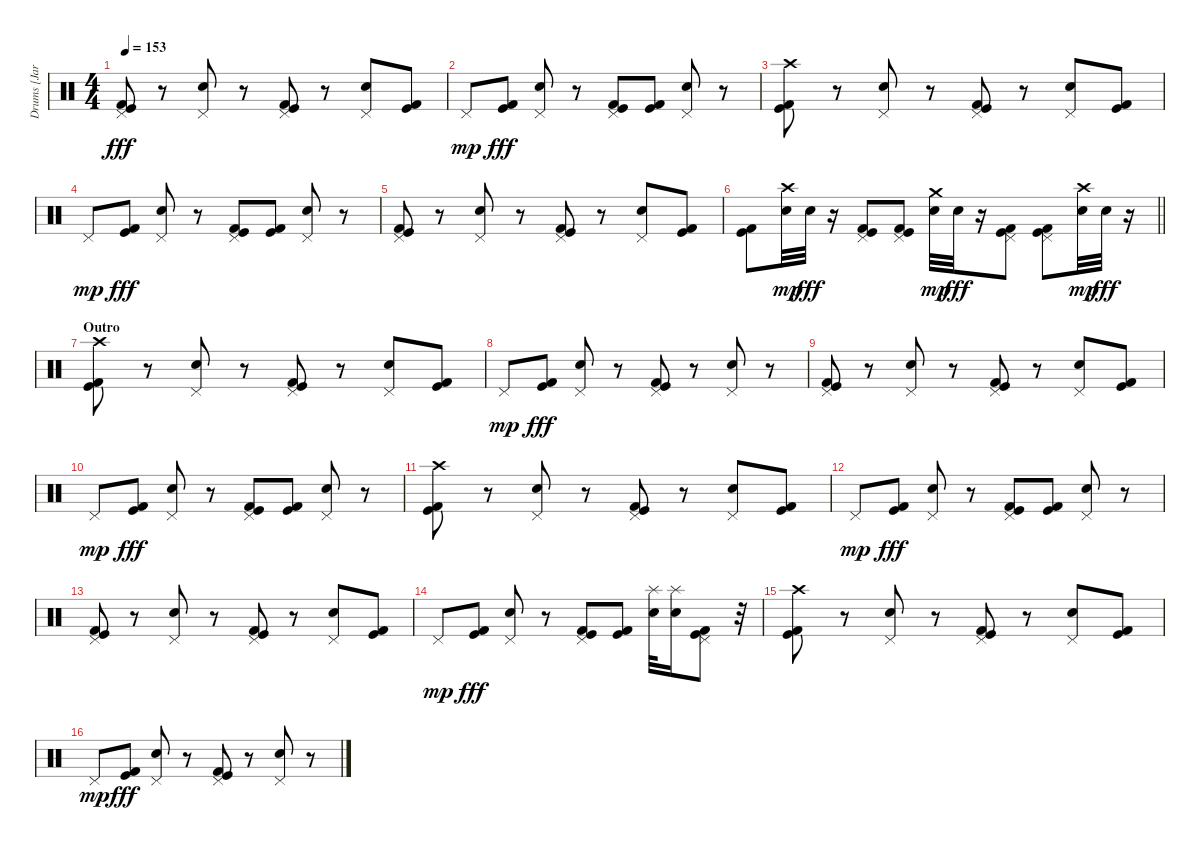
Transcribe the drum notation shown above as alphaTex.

\track ("Drums [Jari]" "Drums [Jar") {instrument percussion}
\staff {score}
\articulation defaults
\ts (4 4)
\tempo 153
\clef neutral
\ks c
("Kick (hit) 2" "Pedal Hi-Hat (hit)" "Kick (hit)").8{dy fff} r.8 ("Pedal Hi-Hat (hit)" "Electric Snare (hit)").8 r.8 ("Kick (hit) 2" "Pedal Hi-Hat (hit)" "Kick (hit)").8 r.8 ("Pedal Hi-Hat (hit)" "Electric Snare (hit)").8 ("Kick (hit) 2" "Kick (hit)").8 |
"Pedal Hi-Hat (hit)".8{dy mp} ("Kick (hit) 2" "Kick (hit)").8{dy fff} ("Pedal Hi-Hat (hit)" "Electric Snare (hit)").8 r.8 ("Kick (hit) 2" "Pedal Hi-Hat (hit)" "Kick (hit)").8 ("Kick (hit) 2" "Kick (hit)").8 ("Pedal Hi-Hat (hit)" "Electric Snare (hit)").8 r.8 |
("Kick (hit) 2" "Crash high (hit)" "Kick (hit)").8 r.8 ("Pedal Hi-Hat (hit)" "Electric Snare (hit)").8 r.8 ("Kick (hit) 2" "Pedal Hi-Hat (hit)" "Kick (hit)").8 r.8 ("Pedal Hi-Hat (hit)" "Electric Snare (hit)").8 ("Kick (hit) 2" "Kick (hit)").8 |
"Pedal Hi-Hat (hit)".8{dy mp} ("Kick (hit) 2" "Kick (hit)").8{dy fff} ("Pedal Hi-Hat (hit)" "Electric Snare (hit)").8 r.8 ("Kick (hit) 2" "Pedal Hi-Hat (hit)" "Kick (hit)").8 ("Kick (hit) 2" "Kick (hit)").8 ("Pedal Hi-Hat (hit)" "Electric Snare (hit)").8 r.8 |
("Kick (hit) 2" "Pedal Hi-Hat (hit)" "Kick (hit)").8 r.8 ("Pedal Hi-Hat (hit)" "Electric Snare (hit)").8 r.8 ("Kick (hit) 2" "Pedal Hi-Hat (hit)" "Kick (hit)").8 r.8 ("Pedal Hi-Hat (hit)" "Electric Snare (hit)").8 ("Kick (hit) 2" "Kick (hit)").8 |
\barLineRight lightlight
("Kick (hit) 2" "Kick (hit)").8 ("Crash high (hit)" "Electric Snare (hit)").32{dy mp} "Electric Snare (hit)".32{dy fff} r.16 ("Kick (hit) 2" "Pedal Hi-Hat (hit)" "Kick (hit)").8 ("Kick (hit) 2" "Pedal Hi-Hat (hit)" "Kick (hit)").8 ("Crash medium (hit)" "Electric Snare (hit)").32{dy mp} "Electric Snare (hit)".32{dy fff} r.16 ("Kick (hit) 2" "Pedal Hi-Hat (hit)" "Kick (hit)").8 ("Kick (hit) 2" "Pedal Hi-Hat (hit)" "Kick (hit)").8 ("Crash high (hit)" "Electric Snare (hit)").32{dy mp} "Electric Snare (hit)".32{dy fff} r.16 |
\section ("" "Outro")
("Kick (hit) 2" "Crash high (hit)" "Kick (hit)").8 r.8 ("Pedal Hi-Hat (hit)" "Electric Snare (hit)").8 r.8 ("Kick (hit) 2" "Pedal Hi-Hat (hit)" "Kick (hit)").8 r.8 ("Pedal Hi-Hat (hit)" "Electric Snare (hit)").8 ("Kick (hit) 2" "Kick (hit)").8 |
"Pedal Hi-Hat (hit)".8{dy mp} ("Kick (hit) 2" "Kick (hit)").8{dy fff} ("Pedal Hi-Hat (hit)" "Electric Snare (hit)").8 r.8 ("Kick (hit) 2" "Pedal Hi-Hat (hit)" "Kick (hit)").8 r.8 ("Pedal Hi-Hat (hit)" "Electric Snare (hit)").8 r.8 |
("Kick (hit) 2" "Pedal Hi-Hat (hit)" "Kick (hit)").8 r.8 ("Pedal Hi-Hat (hit)" "Electric Snare (hit)").8 r.8 ("Kick (hit) 2" "Pedal Hi-Hat (hit)" "Kick (hit)").8 r.8 ("Pedal Hi-Hat (hit)" "Electric Snare (hit)").8 ("Kick (hit) 2" "Kick (hit)").8 |
"Pedal Hi-Hat (hit)".8{dy mp} ("Kick (hit) 2" "Kick (hit)").8{dy fff} ("Pedal Hi-Hat (hit)" "Electric Snare (hit)").8 r.8 ("Kick (hit) 2" "Pedal Hi-Hat (hit)" "Kick (hit)").8 ("Kick (hit) 2" "Kick (hit)").8 ("Pedal Hi-Hat (hit)" "Electric Snare (hit)").8 r.8 |
("Kick (hit) 2" "Crash high (hit)" "Kick (hit)").8 r.8 ("Pedal Hi-Hat (hit)" "Electric Snare (hit)").8 r.8 ("Kick (hit) 2" "Pedal Hi-Hat (hit)" "Kick (hit)").8 r.8 ("Pedal Hi-Hat (hit)" "Electric Snare (hit)").8 ("Kick (hit) 2" "Kick (hit)").8 |
"Pedal Hi-Hat (hit)".8{dy mp} ("Kick (hit) 2" "Kick (hit)").8{dy fff} ("Pedal Hi-Hat (hit)" "Electric Snare (hit)").8 r.8 ("Kick (hit) 2" "Pedal Hi-Hat (hit)" "Kick (hit)").8 ("Kick (hit) 2" "Kick (hit)").8 ("Pedal Hi-Hat (hit)" "Electric Snare (hit)").8 r.8 |
("Kick (hit) 2" "Pedal Hi-Hat (hit)" "Kick (hit)").8{volume 10} r.8 ("Pedal Hi-Hat (hit)" "Electric Snare (hit)").8 r.8 ("Kick (hit) 2" "Pedal Hi-Hat (hit)" "Kick (hit)").8 r.8 ("Pedal Hi-Hat (hit)" "Electric Snare (hit)").8 ("Kick (hit) 2" "Kick (hit)").8 |
"Pedal Hi-Hat (hit)".8{dy mp} ("Kick (hit) 2" "Kick (hit)").8{dy fff} ("Pedal Hi-Hat (hit)" "Electric Snare (hit)").8 r.8 ("Kick (hit) 2" "Pedal Hi-Hat (hit)" "Kick (hit)").8 ("Kick (hit) 2" "Kick (hit)").8 ("Splash (hit)" "Electric Snare (hit)").32 ("Splash (hit)" "Electric Snare (hit)").16 ("Kick (hit) 2" "Pedal Hi-Hat (hit)" "Kick (hit)").8 r.32 |
("Kick (hit) 2" "Crash high (hit)" "Kick (hit)").8 r.8 ("Pedal Hi-Hat (hit)" "Electric Snare (hit)").8 r.8 ("Kick (hit) 2" "Pedal Hi-Hat (hit)" "Kick (hit)").8 r.8 ("Pedal Hi-Hat (hit)" "Electric Snare (hit)").8 ("Kick (hit) 2" "Kick (hit)").8 |
"Pedal Hi-Hat (hit)".8{dy mp} ("Kick (hit) 2" "Kick (hit)").8{dy fff} ("Pedal Hi-Hat (hit)" "Electric Snare (hit)").8 r.8 ("Kick (hit) 2" "Pedal Hi-Hat (hit)" "Kick (hit)").8 r.8 ("Pedal Hi-Hat (hit)" "Electric Snare (hit)").8 r.8
